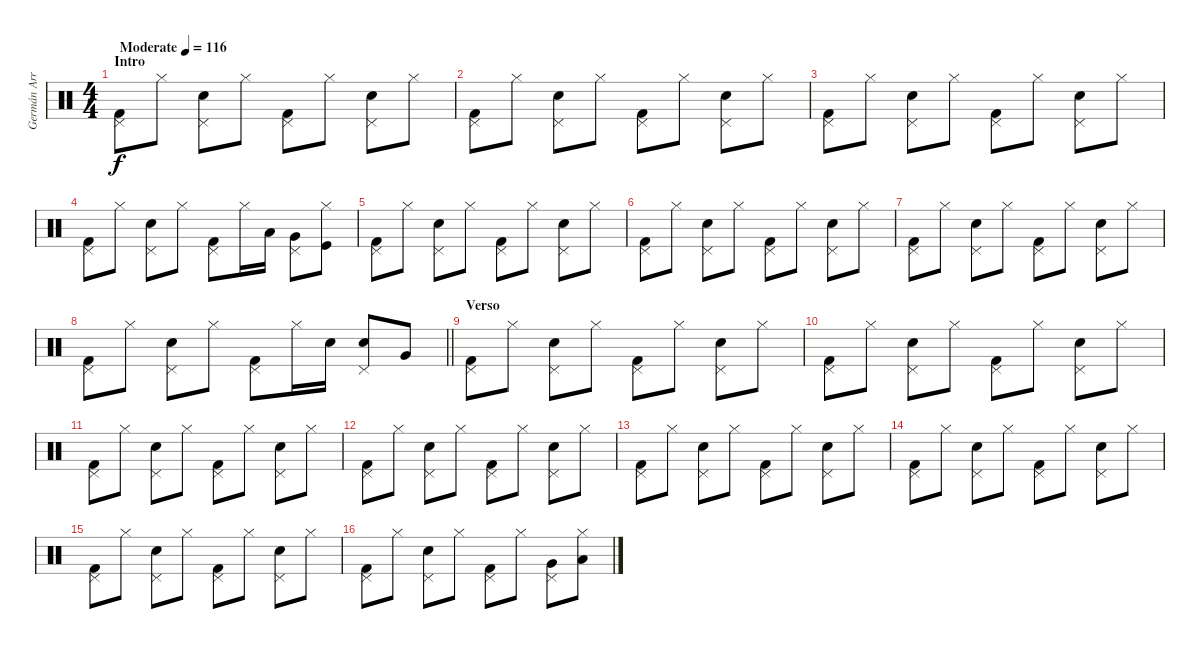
\track ("Germán Arroyo (Batería)" "Germán Arr") {instrument percussion}
\staff {score}
\articulation defaults
\ts (4 4)
\section ("" "Intro")
\tempo (116 "Moderate")
\clef neutral
\ks c
("Pedal Hi-Hat (hit)" "Kick (hit) 2").8{dy f} "Hi-Hat (closed)".8 ("Pedal Hi-Hat (hit)" "Snare (hit) 2").8 "Hi-Hat (closed)".8 ("Pedal Hi-Hat (hit)" "Kick (hit) 2").8 "Hi-Hat (closed)".8 ("Pedal Hi-Hat (hit)" "Snare (hit) 2").8 "Hi-Hat (closed)".8 |
("Pedal Hi-Hat (hit)" "Kick (hit) 2").8 "Hi-Hat (closed)".8 ("Pedal Hi-Hat (hit)" "Snare (hit) 2").8 "Hi-Hat (closed)".8 ("Pedal Hi-Hat (hit)" "Kick (hit) 2").8 "Hi-Hat (closed)".8 ("Pedal Hi-Hat (hit)" "Snare (hit) 2").8 "Hi-Hat (closed)".8 |
("Pedal Hi-Hat (hit)" "Kick (hit) 2").8 "Hi-Hat (closed)".8 ("Pedal Hi-Hat (hit)" "Snare (hit) 2").8 "Hi-Hat (closed)".8 ("Pedal Hi-Hat (hit)" "Kick (hit) 2").8 "Hi-Hat (closed)".8 ("Pedal Hi-Hat (hit)" "Snare (hit) 2").8 "Hi-Hat (closed)".8 |
("Pedal Hi-Hat (hit)" "Kick (hit) 2").8 "Hi-Hat (closed)".8 ("Pedal Hi-Hat (hit)" "Snare (hit) 2").8 "Hi-Hat (closed)".8 ("Pedal Hi-Hat (hit)" "Kick (hit) 2").8 "Hi-Hat (closed)".16 "Low Floor Tom (hit)".16 ("Pedal Hi-Hat (hit)" "Very Low Tom (hit)").8 ("Hi-Hat (closed)" "Kick (hit)").8 |
("Pedal Hi-Hat (hit)" "Kick (hit) 2").8 "Hi-Hat (closed)".8 ("Pedal Hi-Hat (hit)" "Snare (hit) 2").8 "Hi-Hat (closed)".8 ("Pedal Hi-Hat (hit)" "Kick (hit) 2").8 "Hi-Hat (closed)".8 ("Pedal Hi-Hat (hit)" "Snare (hit) 2").8 "Hi-Hat (closed)".8 |
("Pedal Hi-Hat (hit)" "Kick (hit) 2").8 "Hi-Hat (closed)".8 ("Pedal Hi-Hat (hit)" "Snare (hit) 2").8 "Hi-Hat (closed)".8 ("Pedal Hi-Hat (hit)" "Kick (hit) 2").8 "Hi-Hat (closed)".8 ("Pedal Hi-Hat (hit)" "Snare (hit) 2").8 "Hi-Hat (closed)".8 |
("Pedal Hi-Hat (hit)" "Kick (hit) 2").8 "Hi-Hat (closed)".8 ("Pedal Hi-Hat (hit)" "Snare (hit) 2").8 "Hi-Hat (closed)".8 ("Pedal Hi-Hat (hit)" "Kick (hit) 2").8 "Hi-Hat (closed)".8 ("Pedal Hi-Hat (hit)" "Snare (hit) 2").8 "Hi-Hat (closed)".8 |
\barLineRight lightlight
("Pedal Hi-Hat (hit)" "Kick (hit) 2").8 "Hi-Hat (closed)".8 ("Pedal Hi-Hat (hit)" "Snare (hit) 2").8 "Hi-Hat (closed)".8 ("Pedal Hi-Hat (hit)" "Kick (hit) 2").8 "Hi-Hat (closed)".16 "Snare (hit) 2".16 ("Pedal Hi-Hat (hit)" "Snare (hit) 2").8 "Very Low Tom (hit)".8 |
\section ("" "Verso")
("Pedal Hi-Hat (hit)" "Kick (hit) 2").8 "Hi-Hat (closed)".8 ("Pedal Hi-Hat (hit)" "Snare (hit) 2").8 "Hi-Hat (closed)".8 ("Pedal Hi-Hat (hit)" "Kick (hit) 2").8 "Hi-Hat (closed)".8 ("Pedal Hi-Hat (hit)" "Snare (hit) 2").8 "Hi-Hat (closed)".8 |
("Pedal Hi-Hat (hit)" "Kick (hit) 2").8 "Hi-Hat (closed)".8 ("Pedal Hi-Hat (hit)" "Snare (hit) 2").8 "Hi-Hat (closed)".8 ("Pedal Hi-Hat (hit)" "Kick (hit) 2").8 "Hi-Hat (closed)".8 ("Pedal Hi-Hat (hit)" "Snare (hit) 2").8 "Hi-Hat (closed)".8 |
("Pedal Hi-Hat (hit)" "Kick (hit) 2").8 "Hi-Hat (closed)".8 ("Pedal Hi-Hat (hit)" "Snare (hit) 2").8 "Hi-Hat (closed)".8 ("Pedal Hi-Hat (hit)" "Kick (hit) 2").8 "Hi-Hat (closed)".8 ("Pedal Hi-Hat (hit)" "Snare (hit) 2").8 "Hi-Hat (closed)".8 |
("Pedal Hi-Hat (hit)" "Kick (hit) 2").8 "Hi-Hat (closed)".8 ("Pedal Hi-Hat (hit)" "Snare (hit) 2").8 "Hi-Hat (closed)".8 ("Pedal Hi-Hat (hit)" "Kick (hit) 2").8 "Hi-Hat (closed)".8 ("Pedal Hi-Hat (hit)" "Snare (hit) 2").8 "Hi-Hat (closed)".8 |
("Pedal Hi-Hat (hit)" "Kick (hit) 2").8 "Hi-Hat (closed)".8 ("Pedal Hi-Hat (hit)" "Snare (hit) 2").8 "Hi-Hat (closed)".8 ("Pedal Hi-Hat (hit)" "Kick (hit) 2").8 "Hi-Hat (closed)".8 ("Pedal Hi-Hat (hit)" "Snare (hit) 2").8 "Hi-Hat (closed)".8 |
("Pedal Hi-Hat (hit)" "Kick (hit) 2").8 "Hi-Hat (closed)".8 ("Pedal Hi-Hat (hit)" "Snare (hit) 2").8 "Hi-Hat (closed)".8 ("Pedal Hi-Hat (hit)" "Kick (hit) 2").8 "Hi-Hat (closed)".8 ("Pedal Hi-Hat (hit)" "Snare (hit) 2").8 "Hi-Hat (closed)".8 |
("Pedal Hi-Hat (hit)" "Kick (hit) 2").8 "Hi-Hat (closed)".8 ("Pedal Hi-Hat (hit)" "Snare (hit) 2").8 "Hi-Hat (closed)".8 ("Pedal Hi-Hat (hit)" "Kick (hit) 2").8 "Hi-Hat (closed)".8 ("Pedal Hi-Hat (hit)" "Snare (hit) 2").8 "Hi-Hat (closed)".8 |
("Pedal Hi-Hat (hit)" "Kick (hit) 2").8 "Hi-Hat (closed)".8 ("Pedal Hi-Hat (hit)" "Snare (hit) 2").8 "Hi-Hat (closed)".8 ("Pedal Hi-Hat (hit)" "Kick (hit) 2").8 "Hi-Hat (closed)".8 ("Pedal Hi-Hat (hit)" "Very Low Tom (hit)").8 ("Hi-Hat (closed)" "Low Floor Tom (hit)").8
